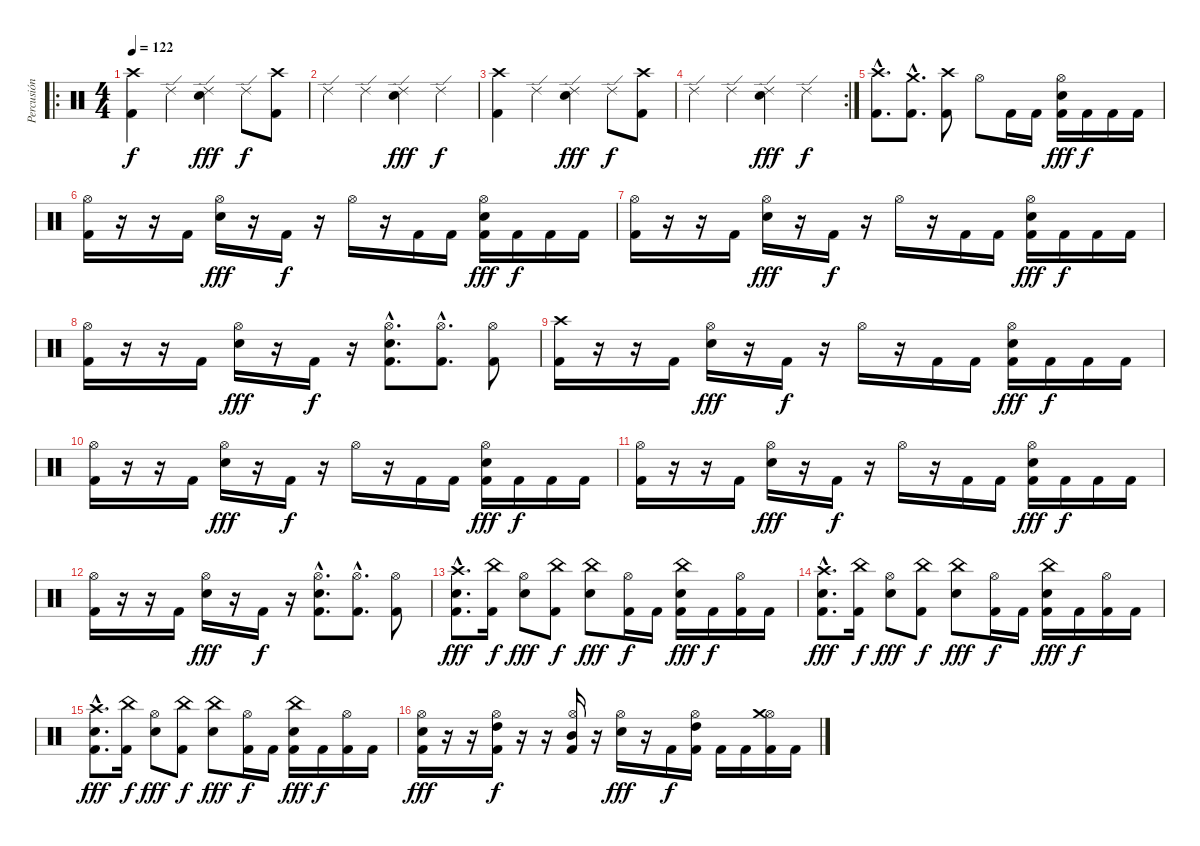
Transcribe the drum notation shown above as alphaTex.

\track ("Percusión" "Percusión") {instrument percussion}
\staff {score}
\articulation defaults
\ro
\ts (4 4)
\tempo 122
\clef neutral
\ks c
("Crash high (hit)" "Kick (hit) 2").4{dy f} "Ride (edge) 2".4 ("Ride (edge) 2" "Electric Snare (hit)").4{dy fff} "Ride (edge) 2".8{dy f} ("Crash high (hit)" "Kick (hit) 2").8 |
"Ride (edge) 2".4 "Ride (edge) 2".4 ("Ride (edge) 2" "Electric Snare (hit)").4{dy fff} "Ride (edge) 2".4{dy f} |
("Crash high (hit)" "Kick (hit) 2").4 "Ride (edge) 2".4 ("Ride (edge) 2" "Electric Snare (hit)").4{dy fff} "Ride (edge) 2".8{dy f} ("Crash high (hit)" "Kick (hit) 2").8 |
\rc 2 "Ride (edge) 2".4 "Ride (edge) 2".4
("Ride (edge) 2" "Electric Snare (hit)").4{dy fff} "Ride (edge) 2".4{dy f} |
("Crash high (hit)"{hac} "Kick (hit) 2"{hac}).8{d} ("Crash medium (hit)"{hac} "Kick (hit) 2"{hac}).8{d} ("Crash high (hit)" "Kick (hit) 2").8 "Hi-Hat (open)".8 "Kick (hit) 2".16 "Kick (hit) 2".16 ("Hi-Hat (open)" "Electric Snare (hit)" "Kick (hit) 2").16{dy fff} "Kick (hit) 2".16{dy f} "Kick (hit) 2".16 "Kick (hit) 2".16 |
("Hi-Hat (open)" "Kick (hit) 2").16 r.16 r.16 "Kick (hit) 2".16 ("Hi-Hat (open)" "Electric Snare (hit)").16{dy fff} r.16 "Kick (hit) 2".16{dy f} r.16 "Hi-Hat (open)".16 r.16 "Kick (hit) 2".16 "Kick (hit) 2".16 ("Hi-Hat (open)" "Electric Snare (hit)" "Kick (hit) 2").16{dy fff} "Kick (hit) 2".16{dy f} "Kick (hit) 2".16 "Kick (hit) 2".16 |
("Hi-Hat (open)" "Kick (hit) 2").16 r.16 r.16 "Kick (hit) 2".16 ("Hi-Hat (open)" "Electric Snare (hit)").16{dy fff} r.16 "Kick (hit) 2".16{dy f} r.16 "Hi-Hat (open)".16 r.16 "Kick (hit) 2".16 "Kick (hit) 2".16 ("Hi-Hat (open)" "Electric Snare (hit)" "Kick (hit) 2").16{dy fff} "Kick (hit) 2".16{dy f} "Kick (hit) 2".16 "Kick (hit) 2".16 |
("Hi-Hat (open)" "Kick (hit) 2").16 r.16 r.16 "Kick (hit) 2".16 ("Hi-Hat (open)" "Electric Snare (hit)").16{dy fff} r.16 "Kick (hit) 2".16{dy f} r.16 ("Hi-Hat (open)"{hac} "Electric Snare (hit)"{hac} "Kick (hit) 2"{hac}).8{d} ("Hi-Hat (open)"{hac} "Kick (hit) 2"{hac}).8{d} ("Hi-Hat (open)" "Kick (hit) 2").8 |
("Crash high (hit)" "Kick (hit) 2").16 r.16 r.16 "Kick (hit) 2".16 ("Hi-Hat (open)" "Electric Snare (hit)").16{dy fff} r.16 "Kick (hit) 2".16{dy f} r.16 "Hi-Hat (open)".16 r.16 "Kick (hit) 2".16 "Kick (hit) 2".16 ("Hi-Hat (open)" "Electric Snare (hit)" "Kick (hit) 2").16{dy fff} "Kick (hit) 2".16{dy f} "Kick (hit) 2".16 "Kick (hit) 2".16 |
("Hi-Hat (open)" "Kick (hit) 2").16 r.16 r.16 "Kick (hit) 2".16 ("Hi-Hat (open)" "Electric Snare (hit)").16{dy fff} r.16 "Kick (hit) 2".16{dy f} r.16 "Hi-Hat (open)".16 r.16 "Kick (hit) 2".16 "Kick (hit) 2".16 ("Hi-Hat (open)" "Electric Snare (hit)" "Kick (hit) 2").16{dy fff} "Kick (hit) 2".16{dy f} "Kick (hit) 2".16 "Kick (hit) 2".16 |
("Hi-Hat (open)" "Kick (hit) 2").16 r.16 r.16 "Kick (hit) 2".16 ("Hi-Hat (open)" "Electric Snare (hit)").16{dy fff} r.16 "Kick (hit) 2".16{dy f} r.16 "Hi-Hat (open)".16 r.16 "Kick (hit) 2".16 "Kick (hit) 2".16 ("Hi-Hat (open)" "Electric Snare (hit)" "Kick (hit) 2").16{dy fff} "Kick (hit) 2".16{dy f} "Kick (hit) 2".16 "Kick (hit) 2".16 |
("Hi-Hat (open)" "Kick (hit) 2").16 r.16 r.16 "Kick (hit) 2".16 ("Hi-Hat (open)" "Electric Snare (hit)").16{dy fff} r.16 "Kick (hit) 2".16{dy f} r.16 ("Hi-Hat (open)"{hac} "Electric Snare (hit)"{hac} "Kick (hit) 2"{hac}).8{d} ("Hi-Hat (open)"{hac} "Kick (hit) 2"{hac}).8{d} ("Hi-Hat (open)" "Kick (hit) 2").8 |
("Crash high (hit)"{hac} "Electric Snare (hit)"{hac} "Kick (hit) 2"{hac}).8{d dy fff} ("China (hit)" "Kick (hit) 2").16{dy f} ("Hi-Hat (open)" "Electric Snare (hit)").8{dy fff} ("China (hit)" "Kick (hit) 2").8{dy f} ("China (hit)" "Electric Snare (hit)").8{dy fff} ("Hi-Hat (open)" "Kick (hit) 2").16{dy f} "Kick (hit) 2".16 ("China (hit)" "Electric Snare (hit)" "Kick (hit) 2").16{dy fff} "Kick (hit) 2".16{dy f} ("Hi-Hat (open)" "Kick (hit) 2").16 "Kick (hit) 2".16 |
("Crash high (hit)"{hac} "Electric Snare (hit)"{hac} "Kick (hit) 2"{hac}).8{d dy fff} ("China (hit)" "Kick (hit) 2").16{dy f} ("Hi-Hat (open)" "Electric Snare (hit)").8{dy fff} ("China (hit)" "Kick (hit) 2").8{dy f} ("China (hit)" "Electric Snare (hit)").8{dy fff} ("Hi-Hat (open)" "Kick (hit) 2").16{dy f} "Kick (hit) 2".16 ("China (hit)" "Electric Snare (hit)" "Kick (hit) 2").16{dy fff} "Kick (hit) 2".16{dy f} ("Hi-Hat (open)" "Kick (hit) 2").16 "Kick (hit) 2".16 |
("Crash high (hit)"{hac} "Electric Snare (hit)"{hac} "Kick (hit) 2"{hac}).8{d dy fff} ("China (hit)" "Kick (hit) 2").16{dy f} ("Hi-Hat (open)" "Electric Snare (hit)").8{dy fff} ("China (hit)" "Kick (hit) 2").8{dy f} ("China (hit)" "Electric Snare (hit)").8{dy fff} ("Hi-Hat (open)" "Kick (hit) 2").16{dy f} "Kick (hit) 2".16 ("China (hit)" "Electric Snare (hit)" "Kick (hit) 2").16{dy fff} "Kick (hit) 2".16{dy f} ("Hi-Hat (open)" "Kick (hit) 2").16 "Kick (hit) 2".16 |
("Hi-Hat (open)" "Electric Snare (hit)" "Kick (hit) 2").16{dy fff} r.16 r.16 ("Hi-Hat (open)" "High Tom (hit)" "Kick (hit) 2").16{dy f} r.16 r.16 ("Hi-Hat (open)" "Mid Tom (hit)" "Kick (hit) 2").16 r.16 ("Hi-Hat (open)" "Electric Snare (hit)").16{dy fff} r.16 "Kick (hit) 2".16{dy f} ("Hi-Hat (open)" "High Tom (hit)" "Kick (hit) 2").16 "Kick (hit) 2".16 "Kick (hit) 2".16 ("Hi-Hat (open)" "Crash medium (hit)" "Kick (hit) 2").16 "Kick (hit) 2".16
